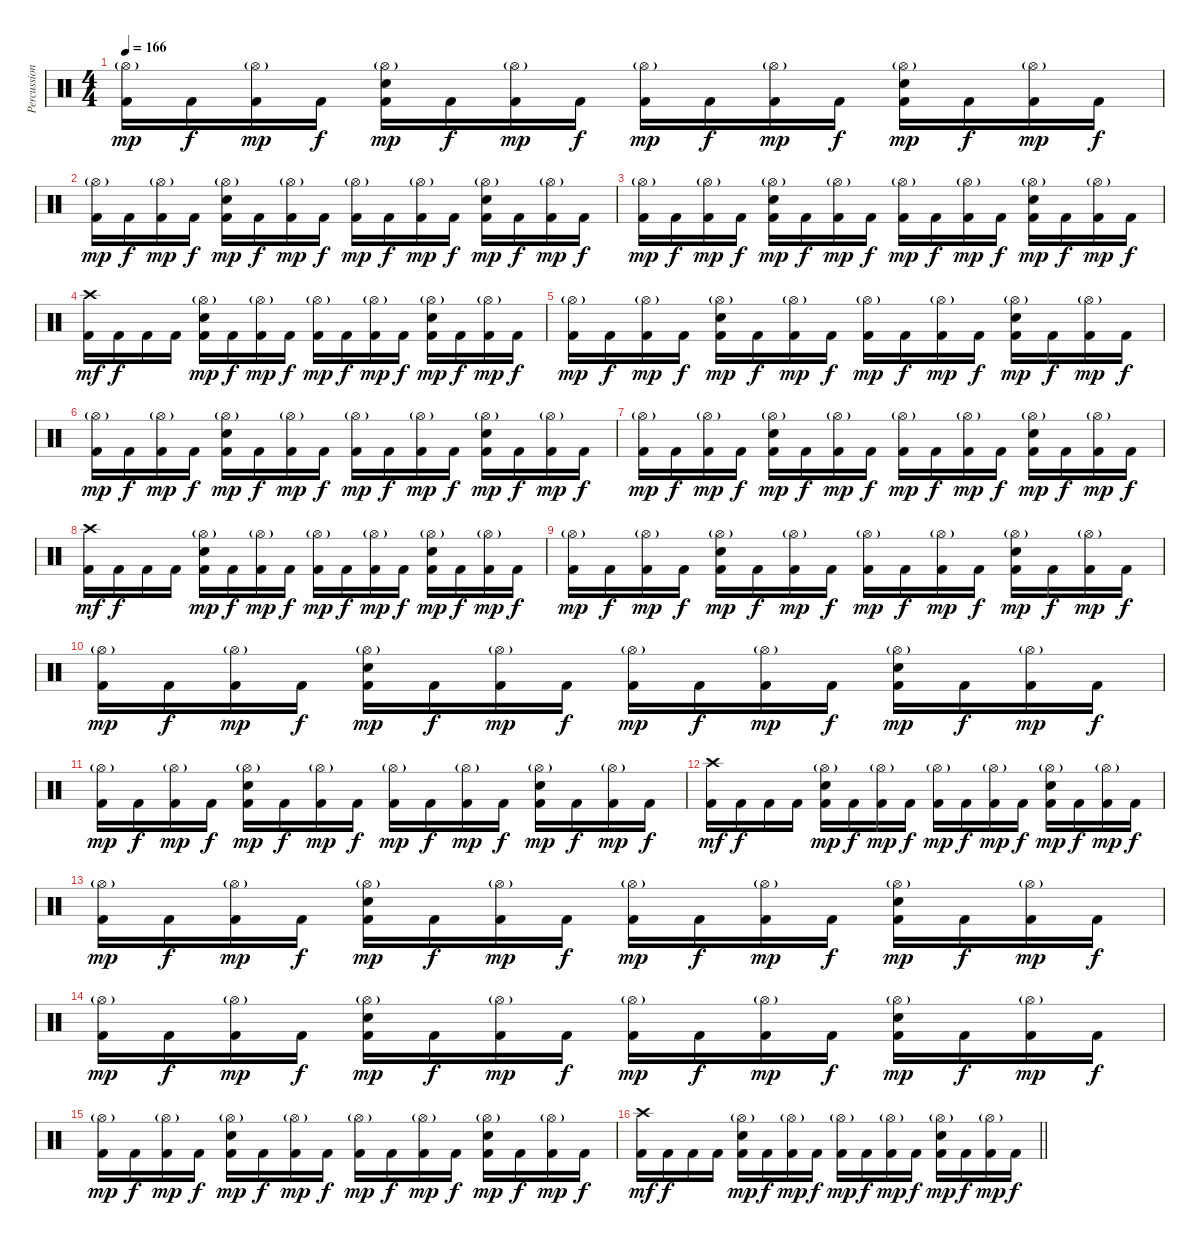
\track ("Percussion" "Percussion") {instrument percussion}
\staff {score}
\articulation defaults
\ts (4 4)
\tempo 166
\clef neutral
\ks c
("Kick (hit) 2" "Hi-Hat (open)"{g}).16{dy mp} "Kick (hit) 2".16{dy f} ("Kick (hit) 2" "Hi-Hat (open)"{g}).16{dy mp} "Kick (hit) 2".16{dy f} ("Kick (hit) 2" "Electric Snare (hit)" "Hi-Hat (open)"{g}).16{dy mp} "Kick (hit) 2".16{dy f} ("Kick (hit) 2" "Hi-Hat (open)"{g}).16{dy mp} "Kick (hit) 2".16{dy f} ("Kick (hit) 2" "Hi-Hat (open)"{g}).16{dy mp} "Kick (hit) 2".16{dy f} ("Kick (hit) 2" "Hi-Hat (open)"{g}).16{dy mp} "Kick (hit) 2".16{dy f} ("Kick (hit) 2" "Electric Snare (hit)" "Hi-Hat (open)"{g}).16{dy mp} "Kick (hit) 2".16{dy f} ("Kick (hit) 2" "Hi-Hat (open)"{g}).16{dy mp} "Kick (hit) 2".16{dy f} |
("Kick (hit) 2" "Hi-Hat (open)"{g}).16{dy mp} "Kick (hit) 2".16{dy f} ("Kick (hit) 2" "Hi-Hat (open)"{g}).16{dy mp} "Kick (hit) 2".16{dy f} ("Kick (hit) 2" "Electric Snare (hit)" "Hi-Hat (open)"{g}).16{dy mp} "Kick (hit) 2".16{dy f} ("Kick (hit) 2" "Hi-Hat (open)"{g}).16{dy mp} "Kick (hit) 2".16{dy f} ("Kick (hit) 2" "Hi-Hat (open)"{g}).16{dy mp} "Kick (hit) 2".16{dy f} ("Kick (hit) 2" "Hi-Hat (open)"{g}).16{dy mp} "Kick (hit) 2".16{dy f} ("Kick (hit) 2" "Electric Snare (hit)" "Hi-Hat (open)"{g}).16{dy mp} "Kick (hit) 2".16{dy f} ("Kick (hit) 2" "Hi-Hat (open)"{g}).16{dy mp} "Kick (hit) 2".16{dy f} |
("Kick (hit) 2" "Hi-Hat (open)"{g}).16{dy mp} "Kick (hit) 2".16{dy f} ("Kick (hit) 2" "Hi-Hat (open)"{g}).16{dy mp} "Kick (hit) 2".16{dy f} ("Kick (hit) 2" "Electric Snare (hit)" "Hi-Hat (open)"{g}).16{dy mp} "Kick (hit) 2".16{dy f} ("Kick (hit) 2" "Hi-Hat (open)"{g}).16{dy mp} "Kick (hit) 2".16{dy f} ("Kick (hit) 2" "Hi-Hat (open)"{g}).16{dy mp} "Kick (hit) 2".16{dy f} ("Kick (hit) 2" "Hi-Hat (open)"{g}).16{dy mp} "Kick (hit) 2".16{dy f} ("Kick (hit) 2" "Electric Snare (hit)" "Hi-Hat (open)"{g}).16{dy mp} "Kick (hit) 2".16{dy f} ("Kick (hit) 2" "Hi-Hat (open)"{g}).16{dy mp} "Kick (hit) 2".16{dy f} |
("Kick (hit) 2" "Crash high (hit)").16{dy mf} "Kick (hit) 2".16{dy f} "Kick (hit) 2".16 "Kick (hit) 2".16 ("Kick (hit) 2" "Electric Snare (hit)" "Hi-Hat (open)"{g}).16{dy mp} "Kick (hit) 2".16{dy f} ("Kick (hit) 2" "Hi-Hat (open)"{g}).16{dy mp} "Kick (hit) 2".16{dy f} ("Kick (hit) 2" "Hi-Hat (open)"{g}).16{dy mp} "Kick (hit) 2".16{dy f} ("Kick (hit) 2" "Hi-Hat (open)"{g}).16{dy mp} "Kick (hit) 2".16{dy f} ("Kick (hit) 2" "Electric Snare (hit)" "Hi-Hat (open)"{g}).16{dy mp} "Kick (hit) 2".16{dy f} ("Kick (hit) 2" "Hi-Hat (open)"{g}).16{dy mp} "Kick (hit) 2".16{dy f} |
("Kick (hit) 2" "Hi-Hat (open)"{g}).16{dy mp} "Kick (hit) 2".16{dy f} ("Kick (hit) 2" "Hi-Hat (open)"{g}).16{dy mp} "Kick (hit) 2".16{dy f} ("Kick (hit) 2" "Electric Snare (hit)" "Hi-Hat (open)"{g}).16{dy mp} "Kick (hit) 2".16{dy f} ("Kick (hit) 2" "Hi-Hat (open)"{g}).16{dy mp} "Kick (hit) 2".16{dy f} ("Kick (hit) 2" "Hi-Hat (open)"{g}).16{dy mp} "Kick (hit) 2".16{dy f} ("Kick (hit) 2" "Hi-Hat (open)"{g}).16{dy mp} "Kick (hit) 2".16{dy f} ("Kick (hit) 2" "Electric Snare (hit)" "Hi-Hat (open)"{g}).16{dy mp} "Kick (hit) 2".16{dy f} ("Kick (hit) 2" "Hi-Hat (open)"{g}).16{dy mp} "Kick (hit) 2".16{dy f} |
("Kick (hit) 2" "Hi-Hat (open)"{g}).16{dy mp} "Kick (hit) 2".16{dy f} ("Kick (hit) 2" "Hi-Hat (open)"{g}).16{dy mp} "Kick (hit) 2".16{dy f} ("Kick (hit) 2" "Electric Snare (hit)" "Hi-Hat (open)"{g}).16{dy mp} "Kick (hit) 2".16{dy f} ("Kick (hit) 2" "Hi-Hat (open)"{g}).16{dy mp} "Kick (hit) 2".16{dy f} ("Kick (hit) 2" "Hi-Hat (open)"{g}).16{dy mp} "Kick (hit) 2".16{dy f} ("Kick (hit) 2" "Hi-Hat (open)"{g}).16{dy mp} "Kick (hit) 2".16{dy f} ("Kick (hit) 2" "Electric Snare (hit)" "Hi-Hat (open)"{g}).16{dy mp} "Kick (hit) 2".16{dy f} ("Kick (hit) 2" "Hi-Hat (open)"{g}).16{dy mp} "Kick (hit) 2".16{dy f} |
("Kick (hit) 2" "Hi-Hat (open)"{g}).16{dy mp} "Kick (hit) 2".16{dy f} ("Kick (hit) 2" "Hi-Hat (open)"{g}).16{dy mp} "Kick (hit) 2".16{dy f} ("Kick (hit) 2" "Electric Snare (hit)" "Hi-Hat (open)"{g}).16{dy mp} "Kick (hit) 2".16{dy f} ("Kick (hit) 2" "Hi-Hat (open)"{g}).16{dy mp} "Kick (hit) 2".16{dy f} ("Kick (hit) 2" "Hi-Hat (open)"{g}).16{dy mp} "Kick (hit) 2".16{dy f} ("Kick (hit) 2" "Hi-Hat (open)"{g}).16{dy mp} "Kick (hit) 2".16{dy f} ("Kick (hit) 2" "Electric Snare (hit)" "Hi-Hat (open)"{g}).16{dy mp} "Kick (hit) 2".16{dy f} ("Kick (hit) 2" "Hi-Hat (open)"{g}).16{dy mp} "Kick (hit) 2".16{dy f} |
("Kick (hit) 2" "Crash high (hit)").16{dy mf} "Kick (hit) 2".16{dy f} "Kick (hit) 2".16 "Kick (hit) 2".16 ("Kick (hit) 2" "Electric Snare (hit)" "Hi-Hat (open)"{g}).16{dy mp} "Kick (hit) 2".16{dy f} ("Kick (hit) 2" "Hi-Hat (open)"{g}).16{dy mp} "Kick (hit) 2".16{dy f} ("Kick (hit) 2" "Hi-Hat (open)"{g}).16{dy mp} "Kick (hit) 2".16{dy f} ("Kick (hit) 2" "Hi-Hat (open)"{g}).16{dy mp} "Kick (hit) 2".16{dy f} ("Kick (hit) 2" "Electric Snare (hit)" "Hi-Hat (open)"{g}).16{dy mp} "Kick (hit) 2".16{dy f} ("Kick (hit) 2" "Hi-Hat (open)"{g}).16{dy mp} "Kick (hit) 2".16{dy f} |
("Kick (hit) 2" "Hi-Hat (open)"{g}).16{dy mp} "Kick (hit) 2".16{dy f} ("Kick (hit) 2" "Hi-Hat (open)"{g}).16{dy mp} "Kick (hit) 2".16{dy f} ("Kick (hit) 2" "Electric Snare (hit)" "Hi-Hat (open)"{g}).16{dy mp} "Kick (hit) 2".16{dy f} ("Kick (hit) 2" "Hi-Hat (open)"{g}).16{dy mp} "Kick (hit) 2".16{dy f} ("Kick (hit) 2" "Hi-Hat (open)"{g}).16{dy mp} "Kick (hit) 2".16{dy f} ("Kick (hit) 2" "Hi-Hat (open)"{g}).16{dy mp} "Kick (hit) 2".16{dy f} ("Kick (hit) 2" "Electric Snare (hit)" "Hi-Hat (open)"{g}).16{dy mp} "Kick (hit) 2".16{dy f} ("Kick (hit) 2" "Hi-Hat (open)"{g}).16{dy mp} "Kick (hit) 2".16{dy f} |
("Kick (hit) 2" "Hi-Hat (open)"{g}).16{dy mp} "Kick (hit) 2".16{dy f} ("Kick (hit) 2" "Hi-Hat (open)"{g}).16{dy mp} "Kick (hit) 2".16{dy f} ("Kick (hit) 2" "Electric Snare (hit)" "Hi-Hat (open)"{g}).16{dy mp} "Kick (hit) 2".16{dy f} ("Kick (hit) 2" "Hi-Hat (open)"{g}).16{dy mp} "Kick (hit) 2".16{dy f} ("Kick (hit) 2" "Hi-Hat (open)"{g}).16{dy mp} "Kick (hit) 2".16{dy f} ("Kick (hit) 2" "Hi-Hat (open)"{g}).16{dy mp} "Kick (hit) 2".16{dy f} ("Kick (hit) 2" "Electric Snare (hit)" "Hi-Hat (open)"{g}).16{dy mp} "Kick (hit) 2".16{dy f} ("Kick (hit) 2" "Hi-Hat (open)"{g}).16{dy mp} "Kick (hit) 2".16{dy f} |
("Kick (hit) 2" "Hi-Hat (open)"{g}).16{dy mp} "Kick (hit) 2".16{dy f} ("Kick (hit) 2" "Hi-Hat (open)"{g}).16{dy mp} "Kick (hit) 2".16{dy f} ("Kick (hit) 2" "Electric Snare (hit)" "Hi-Hat (open)"{g}).16{dy mp} "Kick (hit) 2".16{dy f} ("Kick (hit) 2" "Hi-Hat (open)"{g}).16{dy mp} "Kick (hit) 2".16{dy f} ("Kick (hit) 2" "Hi-Hat (open)"{g}).16{dy mp} "Kick (hit) 2".16{dy f} ("Kick (hit) 2" "Hi-Hat (open)"{g}).16{dy mp} "Kick (hit) 2".16{dy f} ("Kick (hit) 2" "Electric Snare (hit)" "Hi-Hat (open)"{g}).16{dy mp} "Kick (hit) 2".16{dy f} ("Kick (hit) 2" "Hi-Hat (open)"{g}).16{dy mp} "Kick (hit) 2".16{dy f} |
("Kick (hit) 2" "Crash high (hit)").16{dy mf} "Kick (hit) 2".16{dy f} "Kick (hit) 2".16 "Kick (hit) 2".16 ("Kick (hit) 2" "Electric Snare (hit)" "Hi-Hat (open)"{g}).16{dy mp} "Kick (hit) 2".16{dy f} ("Kick (hit) 2" "Hi-Hat (open)"{g}).16{dy mp} "Kick (hit) 2".16{dy f} ("Kick (hit) 2" "Hi-Hat (open)"{g}).16{dy mp} "Kick (hit) 2".16{dy f} ("Kick (hit) 2" "Hi-Hat (open)"{g}).16{dy mp} "Kick (hit) 2".16{dy f} ("Kick (hit) 2" "Electric Snare (hit)" "Hi-Hat (open)"{g}).16{dy mp} "Kick (hit) 2".16{dy f} ("Kick (hit) 2" "Hi-Hat (open)"{g}).16{dy mp} "Kick (hit) 2".16{dy f} |
("Kick (hit) 2" "Hi-Hat (open)"{g}).16{dy mp} "Kick (hit) 2".16{dy f} ("Kick (hit) 2" "Hi-Hat (open)"{g}).16{dy mp} "Kick (hit) 2".16{dy f} ("Kick (hit) 2" "Electric Snare (hit)" "Hi-Hat (open)"{g}).16{dy mp} "Kick (hit) 2".16{dy f} ("Kick (hit) 2" "Hi-Hat (open)"{g}).16{dy mp} "Kick (hit) 2".16{dy f} ("Kick (hit) 2" "Hi-Hat (open)"{g}).16{dy mp} "Kick (hit) 2".16{dy f} ("Kick (hit) 2" "Hi-Hat (open)"{g}).16{dy mp} "Kick (hit) 2".16{dy f} ("Kick (hit) 2" "Electric Snare (hit)" "Hi-Hat (open)"{g}).16{dy mp} "Kick (hit) 2".16{dy f} ("Kick (hit) 2" "Hi-Hat (open)"{g}).16{dy mp} "Kick (hit) 2".16{dy f} |
("Kick (hit) 2" "Hi-Hat (open)"{g}).16{dy mp} "Kick (hit) 2".16{dy f} ("Kick (hit) 2" "Hi-Hat (open)"{g}).16{dy mp} "Kick (hit) 2".16{dy f} ("Kick (hit) 2" "Electric Snare (hit)" "Hi-Hat (open)"{g}).16{dy mp} "Kick (hit) 2".16{dy f} ("Kick (hit) 2" "Hi-Hat (open)"{g}).16{dy mp} "Kick (hit) 2".16{dy f} ("Kick (hit) 2" "Hi-Hat (open)"{g}).16{dy mp} "Kick (hit) 2".16{dy f} ("Kick (hit) 2" "Hi-Hat (open)"{g}).16{dy mp} "Kick (hit) 2".16{dy f} ("Kick (hit) 2" "Electric Snare (hit)" "Hi-Hat (open)"{g}).16{dy mp} "Kick (hit) 2".16{dy f} ("Kick (hit) 2" "Hi-Hat (open)"{g}).16{dy mp} "Kick (hit) 2".16{dy f} |
("Kick (hit) 2" "Hi-Hat (open)"{g}).16{dy mp} "Kick (hit) 2".16{dy f} ("Kick (hit) 2" "Hi-Hat (open)"{g}).16{dy mp} "Kick (hit) 2".16{dy f} ("Kick (hit) 2" "Electric Snare (hit)" "Hi-Hat (open)"{g}).16{dy mp} "Kick (hit) 2".16{dy f} ("Kick (hit) 2" "Hi-Hat (open)"{g}).16{dy mp} "Kick (hit) 2".16{dy f} ("Kick (hit) 2" "Hi-Hat (open)"{g}).16{dy mp} "Kick (hit) 2".16{dy f} ("Kick (hit) 2" "Hi-Hat (open)"{g}).16{dy mp} "Kick (hit) 2".16{dy f} ("Kick (hit) 2" "Electric Snare (hit)" "Hi-Hat (open)"{g}).16{dy mp} "Kick (hit) 2".16{dy f} ("Kick (hit) 2" "Hi-Hat (open)"{g}).16{dy mp} "Kick (hit) 2".16{dy f} |
\barLineRight lightlight
("Kick (hit) 2" "Crash high (hit)").16{dy mf} "Kick (hit) 2".16{dy f} "Kick (hit) 2".16 "Kick (hit) 2".16 ("Kick (hit) 2" "Electric Snare (hit)" "Hi-Hat (open)"{g}).16{dy mp} "Kick (hit) 2".16{dy f} ("Kick (hit) 2" "Hi-Hat (open)"{g}).16{dy mp} "Kick (hit) 2".16{dy f} ("Kick (hit) 2" "Hi-Hat (open)"{g}).16{dy mp} "Kick (hit) 2".16{dy f} ("Kick (hit) 2" "Hi-Hat (open)"{g}).16{dy mp} "Kick (hit) 2".16{dy f} ("Kick (hit) 2" "Electric Snare (hit)" "Hi-Hat (open)"{g}).16{dy mp} "Kick (hit) 2".16{dy f} ("Kick (hit) 2" "Hi-Hat (open)"{g}).16{dy mp} "Kick (hit) 2".16{dy f}
